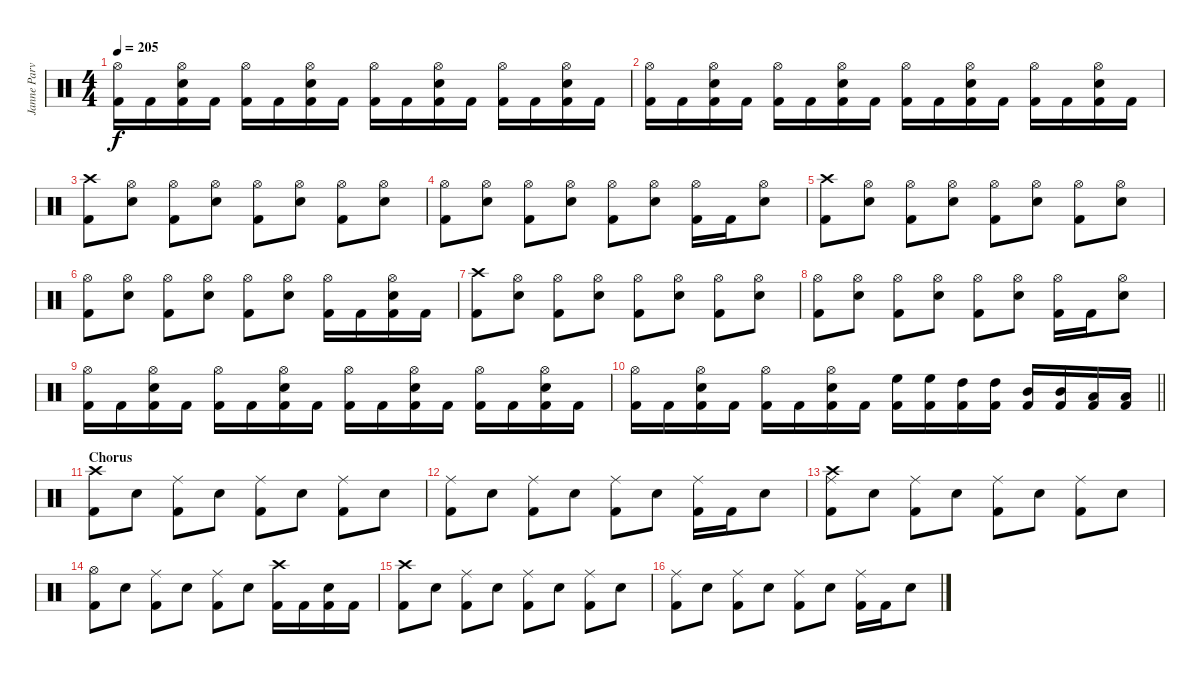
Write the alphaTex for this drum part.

\track ("Janne Parviainen" "Janne Parv") {instrument percussion}
\staff {score}
\articulation defaults
\ts (4 4)
\tempo 205
\clef neutral
\ks c
("Hi-Hat (open)" "Kick (hit) 2").16{dy f} "Kick (hit) 2".16 ("Hi-Hat (open)" "Snare (hit) 2" "Kick (hit) 2").16 "Kick (hit) 2".16 ("Hi-Hat (open)" "Kick (hit) 2").16 "Kick (hit) 2".16 ("Hi-Hat (open)" "Snare (hit) 2" "Kick (hit) 2").16 "Kick (hit) 2".16 ("Hi-Hat (open)" "Kick (hit) 2").16 "Kick (hit) 2".16 ("Hi-Hat (open)" "Snare (hit) 2" "Kick (hit) 2").16 "Kick (hit) 2".16 ("Hi-Hat (open)" "Kick (hit) 2").16 "Kick (hit) 2".16 ("Hi-Hat (open)" "Snare (hit) 2" "Kick (hit) 2").16 "Kick (hit) 2".16 |
("Hi-Hat (open)" "Kick (hit) 2").16 "Kick (hit) 2".16 ("Hi-Hat (open)" "Snare (hit) 2" "Kick (hit) 2").16 "Kick (hit) 2".16 ("Hi-Hat (open)" "Kick (hit) 2").16 "Kick (hit) 2".16 ("Hi-Hat (open)" "Snare (hit) 2" "Kick (hit) 2").16 "Kick (hit) 2".16 ("Hi-Hat (open)" "Kick (hit) 2").16 "Kick (hit) 2".16 ("Hi-Hat (open)" "Snare (hit) 2" "Kick (hit) 2").16 "Kick (hit) 2".16 ("Hi-Hat (open)" "Kick (hit) 2").16 "Kick (hit) 2".16 ("Hi-Hat (open)" "Snare (hit) 2" "Kick (hit) 2").16 "Kick (hit) 2".16 |
("Crash high (hit)" "Kick (hit) 2").8 ("Hi-Hat (open)" "Electric Snare (hit)").8 ("Hi-Hat (open)" "Kick (hit) 2").8 ("Hi-Hat (open)" "Electric Snare (hit)").8 ("Hi-Hat (open)" "Kick (hit) 2").8 ("Hi-Hat (open)" "Electric Snare (hit)").8 ("Hi-Hat (open)" "Kick (hit) 2").8 ("Hi-Hat (open)" "Electric Snare (hit)").8 |
("Hi-Hat (open)" "Kick (hit) 2").8 ("Hi-Hat (open)" "Electric Snare (hit)").8 ("Hi-Hat (open)" "Kick (hit) 2").8 ("Hi-Hat (open)" "Electric Snare (hit)").8 ("Hi-Hat (open)" "Kick (hit) 2").8 ("Hi-Hat (open)" "Electric Snare (hit)").8 ("Hi-Hat (open)" "Kick (hit) 2").16 "Kick (hit) 2".16 ("Hi-Hat (open)" "Electric Snare (hit)").8 |
("Crash high (hit)" "Kick (hit) 2").8 ("Hi-Hat (open)" "Electric Snare (hit)").8 ("Hi-Hat (open)" "Kick (hit) 2").8 ("Hi-Hat (open)" "Electric Snare (hit)").8 ("Hi-Hat (open)" "Kick (hit) 2").8 ("Hi-Hat (open)" "Electric Snare (hit)").8 ("Hi-Hat (open)" "Kick (hit) 2").8 ("Hi-Hat (open)" "Electric Snare (hit)").8 |
("Hi-Hat (open)" "Kick (hit) 2").8 ("Hi-Hat (open)" "Electric Snare (hit)").8 ("Hi-Hat (open)" "Kick (hit) 2").8 ("Hi-Hat (open)" "Electric Snare (hit)").8 ("Hi-Hat (open)" "Kick (hit) 2").8 ("Hi-Hat (open)" "Electric Snare (hit)").8 ("Hi-Hat (open)" "Kick (hit) 2").16 "Kick (hit) 2".16 ("Hi-Hat (open)" "Electric Snare (hit)" "Kick (hit) 2").16 "Kick (hit) 2".16 |
("Crash high (hit)" "Kick (hit) 2").8 ("Hi-Hat (open)" "Electric Snare (hit)").8 ("Hi-Hat (open)" "Kick (hit) 2").8 ("Hi-Hat (open)" "Electric Snare (hit)").8 ("Hi-Hat (open)" "Kick (hit) 2").8 ("Hi-Hat (open)" "Electric Snare (hit)").8 ("Hi-Hat (open)" "Kick (hit) 2").8 ("Hi-Hat (open)" "Electric Snare (hit)").8 |
("Hi-Hat (open)" "Kick (hit) 2").8 ("Hi-Hat (open)" "Electric Snare (hit)").8 ("Hi-Hat (open)" "Kick (hit) 2").8 ("Hi-Hat (open)" "Electric Snare (hit)").8 ("Hi-Hat (open)" "Kick (hit) 2").8 ("Hi-Hat (open)" "Electric Snare (hit)").8 ("Hi-Hat (open)" "Kick (hit) 2").16 "Kick (hit) 2".16 ("Hi-Hat (open)" "Electric Snare (hit)").8 |
("Hi-Hat (open)" "Kick (hit) 2").16 "Kick (hit) 2".16 ("Hi-Hat (open)" "Snare (hit) 2" "Kick (hit) 2").16 "Kick (hit) 2".16 ("Hi-Hat (open)" "Kick (hit) 2").16 "Kick (hit) 2".16 ("Hi-Hat (open)" "Snare (hit) 2" "Kick (hit) 2").16 "Kick (hit) 2".16 ("Hi-Hat (open)" "Kick (hit) 2").16 "Kick (hit) 2".16 ("Hi-Hat (open)" "Snare (hit) 2" "Kick (hit) 2").16 "Kick (hit) 2".16 ("Hi-Hat (open)" "Kick (hit) 2").16 "Kick (hit) 2".16 ("Hi-Hat (open)" "Snare (hit) 2" "Kick (hit) 2").16 "Kick (hit) 2".16 |
\barLineRight lightlight
("Hi-Hat (open)" "Kick (hit) 2").16 "Kick (hit) 2".16 ("Hi-Hat (open)" "Snare (hit) 2" "Kick (hit) 2").16 "Kick (hit) 2".16 ("Hi-Hat (open)" "Kick (hit) 2").16 "Kick (hit) 2".16 ("Hi-Hat (open)" "Snare (hit) 2" "Kick (hit) 2").16 "Kick (hit) 2".16 ("High Floor Tom (hit)" "Kick (hit) 2").16 ("High Floor Tom (hit)" "Kick (hit) 2").16 ("High Tom (hit)" "Kick (hit) 2").16 ("High Tom (hit)" "Kick (hit) 2").16 ("Mid Tom (hit)" "Kick (hit) 2").16 ("Mid Tom (hit)" "Kick (hit) 2").16 ("Low Tom (hit)" "Kick (hit) 2").16 ("Low Tom (hit)" "Kick (hit) 2").16 |
\section ("" "Chorus")
("Crash high (hit)" "Kick (hit) 2").8 "Electric Snare (hit)".8 ("Ride (middle)" "Kick (hit) 2").8 "Electric Snare (hit)".8 ("Ride (middle)" "Kick (hit) 2").8 "Electric Snare (hit)".8 ("Ride (middle)" "Kick (hit) 2").8 "Electric Snare (hit)".8 |
("Ride (middle)" "Kick (hit) 2").8 "Electric Snare (hit)".8 ("Ride (middle)" "Kick (hit) 2").8 "Electric Snare (hit)".8 ("Ride (middle)" "Kick (hit) 2").8 "Electric Snare (hit)".8 ("Ride (middle)" "Kick (hit) 2").16 "Kick (hit) 2".16 "Electric Snare (hit)".8 |
("Crash high (hit)" "Ride (middle)" "Kick (hit) 2").8 "Electric Snare (hit)".8 ("Ride (middle)" "Kick (hit) 2").8 "Electric Snare (hit)".8 ("Ride (middle)" "Kick (hit) 2").8 "Electric Snare (hit)".8 ("Ride (middle)" "Kick (hit) 2").8 "Electric Snare (hit)".8 |
("Hi-Hat (open)" "Kick (hit) 2").8 "Electric Snare (hit)".8 ("Ride (middle)" "Kick (hit) 2").8 "Electric Snare (hit)".8 ("Ride (middle)" "Kick (hit) 2").8 "Electric Snare (hit)".8 ("Crash high (hit)" "Kick (hit) 2").16 "Kick (hit) 2".16 ("Electric Snare (hit)" "Kick (hit) 2").16 "Kick (hit) 2".16 |
("Crash high (hit)" "Kick (hit) 2").8 "Electric Snare (hit)".8 ("Ride (middle)" "Kick (hit) 2").8 "Electric Snare (hit)".8 ("Ride (middle)" "Kick (hit) 2").8 "Electric Snare (hit)".8 ("Ride (middle)" "Kick (hit) 2").8 "Electric Snare (hit)".8 |
("Ride (middle)" "Kick (hit) 2").8 "Electric Snare (hit)".8 ("Ride (middle)" "Kick (hit) 2").8 "Electric Snare (hit)".8 ("Ride (middle)" "Kick (hit) 2").8 "Electric Snare (hit)".8 ("Ride (middle)" "Kick (hit) 2").16 "Kick (hit) 2".16 "Electric Snare (hit)".8
